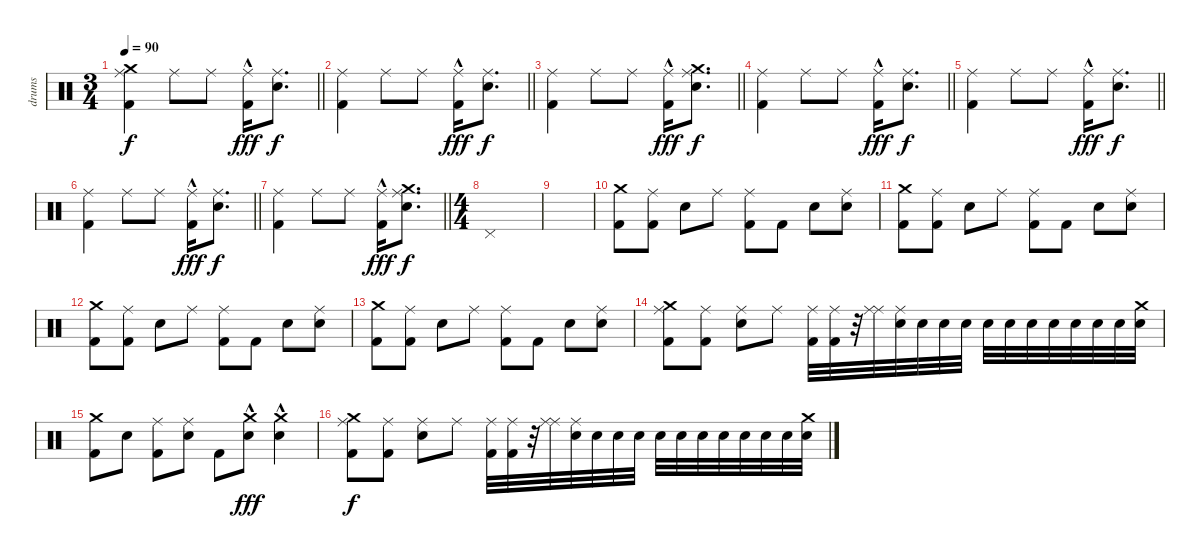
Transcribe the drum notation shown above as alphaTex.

\track ("drums" "drums") {instrument percussion}
\staff {score}
\articulation defaults
\ts (3 4)
\tempo 90
\clef neutral
\barLineRight lightlight
\ks c
("Kick (hit) 2" "Ride (middle)" "Crash medium (hit)").4{dy f} "Ride (middle)".8 "Ride (middle)".8 ("Kick (hit) 2"{hac} "Ride (middle)").16{dy fff} ("Electric Snare (hit)" "Ride (middle)").8{d dy f} |
\barLineRight lightlight
("Kick (hit) 2" "Ride (middle)").4 "Ride (middle)".8 "Ride (middle)".8 ("Kick (hit) 2"{hac} "Ride (middle)").16{dy fff} ("Electric Snare (hit)" "Ride (middle)").8{d dy f} |
\barLineRight lightlight
("Kick (hit) 2" "Ride (middle)").4 "Ride (middle)".8 "Ride (middle)".8 ("Kick (hit) 2"{hac} "Ride (middle)").16{dy fff} ("Electric Snare (hit)" "Ride (middle)" "Crash medium (hit)").8{d dy f} |
\barLineRight lightlight
("Kick (hit) 2" "Ride (middle)").4 "Ride (middle)".8 "Ride (middle)".8 ("Kick (hit) 2"{hac} "Ride (middle)").16{dy fff} ("Electric Snare (hit)" "Ride (middle)").8{d dy f} |
\barLineRight lightlight
("Kick (hit) 2" "Ride (middle)").4 "Ride (middle)".8 "Ride (middle)".8 ("Kick (hit) 2"{hac} "Ride (middle)").16{dy fff} ("Electric Snare (hit)" "Ride (middle)").8{d dy f} |
\barLineRight lightlight
("Kick (hit) 2" "Ride (middle)").4 "Ride (middle)".8 "Ride (middle)".8 ("Kick (hit) 2"{hac} "Ride (middle)").16{dy fff} ("Electric Snare (hit)" "Ride (middle)").8{d dy f} |
\barLineRight lightlight
("Kick (hit) 2" "Ride (middle)").4 "Ride (middle)".8 "Ride (middle)".8 ("Kick (hit) 2"{hac} "Ride (middle)").16{dy fff} ("Electric Snare (hit)" "Ride (middle)" "Crash medium (hit)").8{d dy f} |
\ts (4 4)
"Pedal Hi-Hat (hit)".1 |
|
("Crash medium (hit)" "Kick (hit) 2").8 ("Kick (hit) 2" "Ride (middle)").8 "Electric Snare (hit)".8 "Ride (middle)".8 ("Kick (hit) 2" "Ride (middle)").8 "Kick (hit) 2".8 "Electric Snare (hit)".8 ("Electric Snare (hit)" "Ride (middle)").8 |
("Crash medium (hit)" "Kick (hit) 2").8 ("Kick (hit) 2" "Ride (middle)").8 "Electric Snare (hit)".8 "Ride (middle)".8 ("Kick (hit) 2" "Ride (middle)").8 "Kick (hit) 2".8 "Electric Snare (hit)".8 ("Electric Snare (hit)" "Ride (middle)").8 |
("Crash medium (hit)" "Kick (hit) 2").8 ("Kick (hit) 2" "Ride (middle)").8 "Electric Snare (hit)".8 "Ride (middle)".8 ("Kick (hit) 2" "Ride (middle)").8 "Kick (hit) 2".8 "Electric Snare (hit)".8 ("Electric Snare (hit)" "Ride (middle)").8 |
("Crash medium (hit)" "Kick (hit) 2").8 ("Kick (hit) 2" "Ride (middle)").8 "Electric Snare (hit)".8 "Ride (middle)".8 ("Kick (hit) 2" "Ride (middle)").8 "Kick (hit) 2".8 "Electric Snare (hit)".8 ("Electric Snare (hit)" "Ride (middle)").8 |
("Crash medium (hit)" "Kick (hit) 2" "Ride (middle)").8 ("Kick (hit) 2" "Ride (middle)").8 ("Electric Snare (hit)" "Ride (middle)").8 "Ride (middle)".8 ("Kick (hit) 2" "Ride (middle)").32 ("Kick (hit) 2" "Ride (middle)").32 r.32 ("Ride (middle)" "Ride (middle)").32 ("Electric Snare (hit)" "Ride (middle)").32 "Electric Snare (hit)".32 "Electric Snare (hit)".32 "Electric Snare (hit)".32 "Electric Snare (hit)".32 "Electric Snare (hit)".32 "Electric Snare (hit)".32 "Electric Snare (hit)".32 "Electric Snare (hit)".32 "Electric Snare (hit)".32 "Electric Snare (hit)".32 ("Electric Snare (hit)" "Crash medium (hit)").32 |
("Kick (hit) 2" "Crash medium (hit)").8 "Electric Snare (hit)".8 ("Kick (hit) 2" "Ride (middle)").8 ("Electric Snare (hit)" "Ride (middle)").8 "Kick (hit) 2".8 ("Electric Snare (hit)"{hac} "Crash medium (hit)"{hac}).8{dy fff} ("Electric Snare (hit)"{hac} "Crash medium (hit)"{hac}).4 |
("Crash medium (hit)" "Kick (hit) 2" "Ride (middle)").8{dy f} ("Kick (hit) 2" "Ride (middle)").8 ("Electric Snare (hit)" "Ride (middle)").8 "Ride (middle)".8 ("Kick (hit) 2" "Ride (middle)").32 ("Kick (hit) 2" "Ride (middle)").32 r.32 ("Ride (middle)" "Ride (middle)").32 ("Electric Snare (hit)" "Ride (middle)").32 "Electric Snare (hit)".32 "Electric Snare (hit)".32 "Electric Snare (hit)".32 "Electric Snare (hit)".32 "Electric Snare (hit)".32 "Electric Snare (hit)".32 "Electric Snare (hit)".32 "Electric Snare (hit)".32 "Electric Snare (hit)".32 "Electric Snare (hit)".32 ("Electric Snare (hit)" "Crash medium (hit)").32
